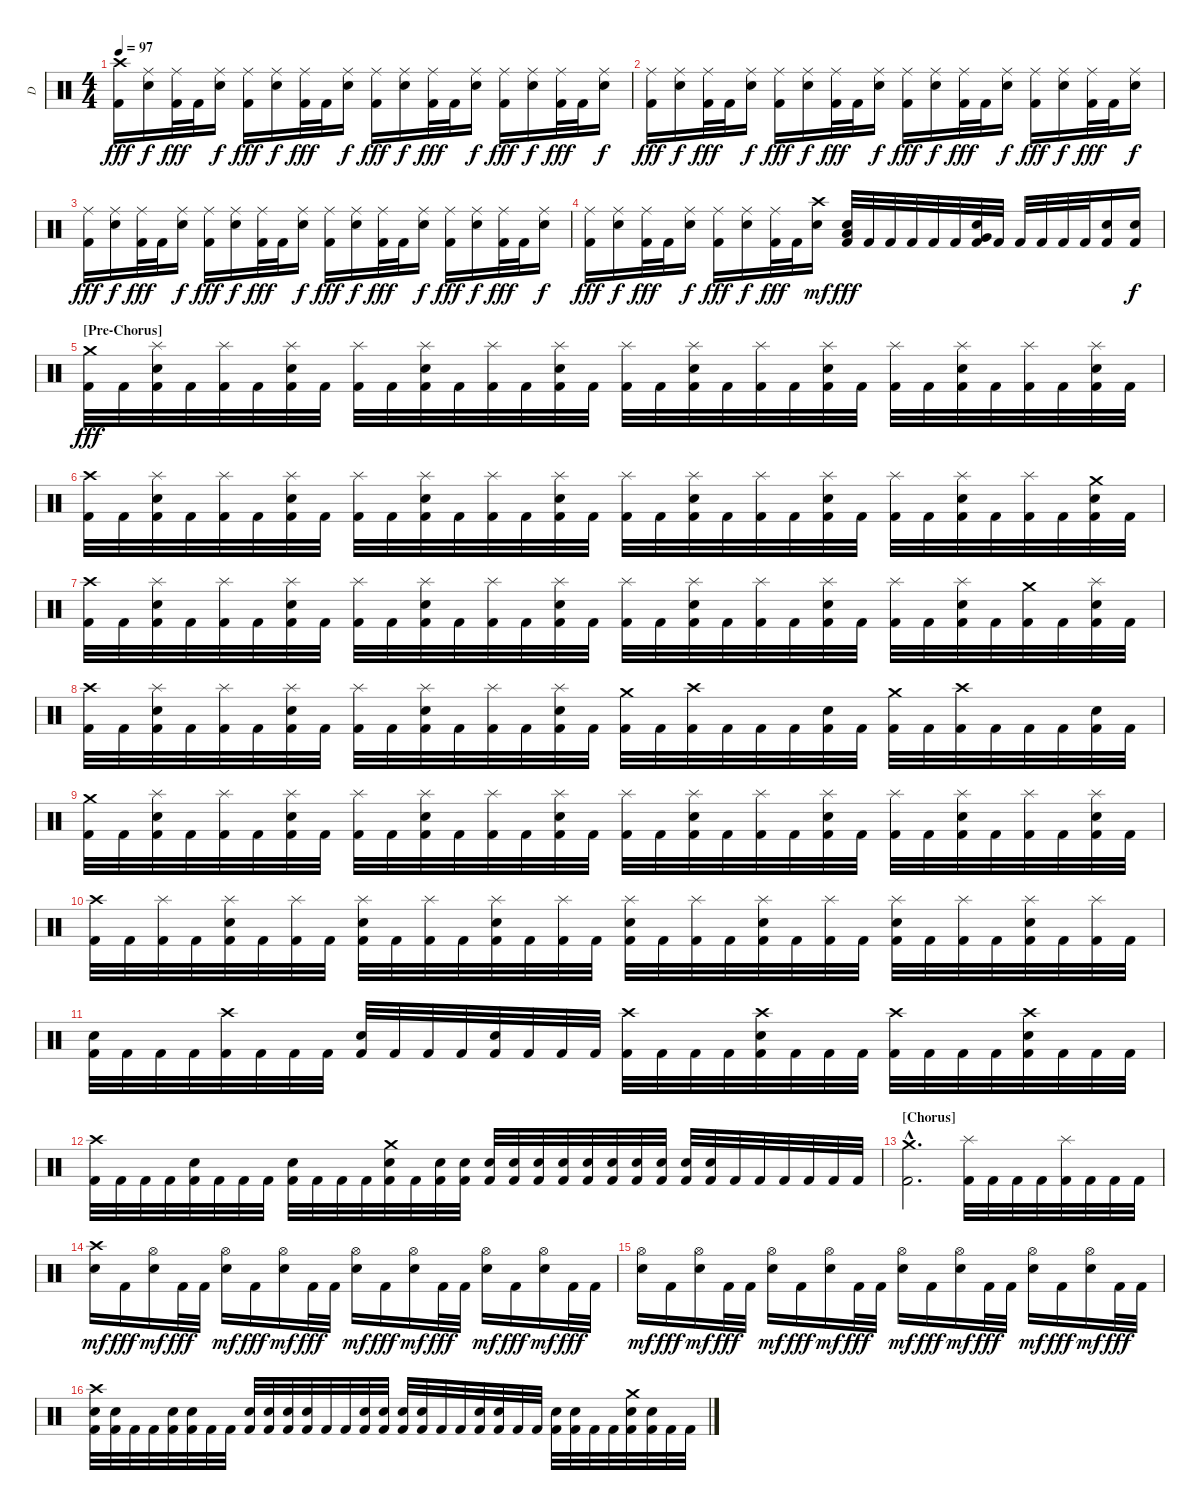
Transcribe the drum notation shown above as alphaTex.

\track ("D" "D") {instrument percussion}
\staff {score}
\articulation defaults
\ts (4 4)
\tempo 97
\clef neutral
\ks c
("Crash high (hit)" "Kick (hit) 2").16{dy fff} ("Ride (middle)" "Snare (hit) 2").16{dy f} ("Ride (middle)" "Kick (hit) 2").32{dy fff} "Kick (hit) 2".32 ("Ride (middle)" "Snare (hit) 2").16{dy f} ("Ride (middle)" "Kick (hit) 2").16{dy fff} ("Ride (middle)" "Snare (hit) 2").16{dy f} ("Ride (middle)" "Kick (hit) 2").32{dy fff} "Kick (hit) 2".32 ("Ride (middle)" "Snare (hit) 2").16{dy f} ("Ride (middle)" "Kick (hit) 2").16{dy fff} ("Ride (middle)" "Snare (hit) 2").16{dy f} ("Ride (middle)" "Kick (hit) 2").32{dy fff} "Kick (hit) 2".32 ("Ride (middle)" "Snare (hit) 2").16{dy f} ("Ride (middle)" "Kick (hit) 2").16{dy fff} ("Ride (middle)" "Snare (hit) 2").16{dy f} ("Ride (middle)" "Kick (hit) 2").32{dy fff} "Kick (hit) 2".32 ("Ride (middle)" "Snare (hit) 2").16{dy f} |
("Ride (middle)" "Kick (hit) 2").16{dy fff} ("Ride (middle)" "Snare (hit) 2").16{dy f} ("Ride (middle)" "Kick (hit) 2").32{dy fff} "Kick (hit) 2".32 ("Ride (middle)" "Snare (hit) 2").16{dy f} ("Ride (middle)" "Kick (hit) 2").16{dy fff} ("Ride (middle)" "Snare (hit) 2").16{dy f} ("Ride (middle)" "Kick (hit) 2").32{dy fff} "Kick (hit) 2".32 ("Ride (middle)" "Snare (hit) 2").16{dy f} ("Ride (middle)" "Kick (hit) 2").16{dy fff} ("Ride (middle)" "Snare (hit) 2").16{dy f} ("Ride (middle)" "Kick (hit) 2").32{dy fff} "Kick (hit) 2".32 ("Ride (middle)" "Snare (hit) 2").16{dy f} ("Ride (middle)" "Kick (hit) 2").16{dy fff} ("Ride (middle)" "Snare (hit) 2").16{dy f} ("Ride (middle)" "Kick (hit) 2").32{dy fff} "Kick (hit) 2".32 ("Ride (middle)" "Snare (hit) 2").16{dy f} |
("Ride (middle)" "Kick (hit) 2").16{dy fff} ("Ride (middle)" "Snare (hit) 2").16{dy f} ("Ride (middle)" "Kick (hit) 2").32{dy fff} "Kick (hit) 2".32 ("Ride (middle)" "Snare (hit) 2").16{dy f} ("Ride (middle)" "Kick (hit) 2").16{dy fff} ("Ride (middle)" "Snare (hit) 2").16{dy f} ("Ride (middle)" "Kick (hit) 2").32{dy fff} "Kick (hit) 2".32 ("Ride (middle)" "Snare (hit) 2").16{dy f} ("Ride (middle)" "Kick (hit) 2").16{dy fff} ("Ride (middle)" "Snare (hit) 2").16{dy f} ("Ride (middle)" "Kick (hit) 2").32{dy fff} "Kick (hit) 2".32 ("Ride (middle)" "Snare (hit) 2").16{dy f} ("Ride (middle)" "Kick (hit) 2").16{dy fff} ("Ride (middle)" "Snare (hit) 2").16{dy f} ("Ride (middle)" "Kick (hit) 2").32{dy fff} "Kick (hit) 2".32 ("Ride (middle)" "Snare (hit) 2").16{dy f} |
("Ride (middle)" "Kick (hit) 2").16{dy fff} ("Ride (middle)" "Snare (hit) 2").16{dy f} ("Ride (middle)" "Kick (hit) 2").32{dy fff} "Kick (hit) 2".32 ("Ride (middle)" "Snare (hit) 2").16{dy f} ("Ride (middle)" "Kick (hit) 2").16{dy fff} ("Ride (middle)" "Snare (hit) 2").16{dy f} ("Ride (middle)" "Kick (hit) 2").32{dy fff} "Kick (hit) 2".32 ("Crash high (hit)" "Snare (hit) 2").16{dy mf} ("Low Tom (hit)" "Snare (hit) 2" "Kick (hit) 2").32{dy fff} "Kick (hit) 2".32 "Kick (hit) 2".32 "Kick (hit) 2".32 "Kick (hit) 2".32 "Kick (hit) 2".32 ("Very Low Tom (hit)" "Snare (hit) 2" "Kick (hit) 2").32 "Kick (hit) 2".32 "Kick (hit) 2".32 "Kick (hit) 2".32 "Kick (hit) 2".32 "Kick (hit) 2".32 ("Snare (hit) 2" "Kick (hit) 2").16 ("Snare (hit) 2" "Kick (hit) 2").16{dy f} |
\section ("" "[Pre-Chorus]")
("Crash medium (hit)" "Kick (hit) 2").32{dy fff} "Kick (hit) 2".32 ("Splash (hit)" "Snare (hit) 2" "Kick (hit) 2").32 "Kick (hit) 2".32 ("Splash (hit)" "Kick (hit) 2").32 "Kick (hit) 2".32 ("Splash (hit)" "Snare (hit) 2" "Kick (hit) 2").32 "Kick (hit) 2".32 ("Splash (hit)" "Kick (hit) 2").32 "Kick (hit) 2".32 ("Splash (hit)" "Snare (hit) 2" "Kick (hit) 2").32 "Kick (hit) 2".32 ("Splash (hit)" "Kick (hit) 2").32 "Kick (hit) 2".32 ("Splash (hit)" "Snare (hit) 2" "Kick (hit) 2").32 "Kick (hit) 2".32 ("Splash (hit)" "Kick (hit) 2").32 "Kick (hit) 2".32 ("Splash (hit)" "Snare (hit) 2" "Kick (hit) 2").32 "Kick (hit) 2".32 ("Splash (hit)" "Kick (hit) 2").32 "Kick (hit) 2".32 ("Splash (hit)" "Snare (hit) 2" "Kick (hit) 2").32 "Kick (hit) 2".32 ("Splash (hit)" "Kick (hit) 2").32 "Kick (hit) 2".32 ("Splash (hit)" "Snare (hit) 2" "Kick (hit) 2").32 "Kick (hit) 2".32 ("Splash (hit)" "Kick (hit) 2").32 "Kick (hit) 2".32 ("Splash (hit)" "Snare (hit) 2" "Kick (hit) 2").32 "Kick (hit) 2".32 |
("Crash high (hit)" "Kick (hit) 2").32 "Kick (hit) 2".32 ("Splash (hit)" "Snare (hit) 2" "Kick (hit) 2").32 "Kick (hit) 2".32 ("Splash (hit)" "Kick (hit) 2").32 "Kick (hit) 2".32 ("Splash (hit)" "Snare (hit) 2" "Kick (hit) 2").32 "Kick (hit) 2".32 ("Splash (hit)" "Kick (hit) 2").32 "Kick (hit) 2".32 ("Splash (hit)" "Snare (hit) 2" "Kick (hit) 2").32 "Kick (hit) 2".32 ("Splash (hit)" "Kick (hit) 2").32 "Kick (hit) 2".32 ("Splash (hit)" "Snare (hit) 2" "Kick (hit) 2").32 "Kick (hit) 2".32 ("Splash (hit)" "Kick (hit) 2").32 "Kick (hit) 2".32 ("Splash (hit)" "Snare (hit) 2" "Kick (hit) 2").32 "Kick (hit) 2".32 ("Splash (hit)" "Kick (hit) 2").32 "Kick (hit) 2".32 ("Splash (hit)" "Snare (hit) 2" "Kick (hit) 2").32 "Kick (hit) 2".32 ("Splash (hit)" "Kick (hit) 2").32 "Kick (hit) 2".32 ("Splash (hit)" "Snare (hit) 2" "Kick (hit) 2").32 "Kick (hit) 2".32 ("Splash (hit)" "Kick (hit) 2").32 "Kick (hit) 2".32 ("Crash medium (hit)" "Snare (hit) 2" "Kick (hit) 2").32 "Kick (hit) 2".32 |
("Crash high (hit)" "Kick (hit) 2").32 "Kick (hit) 2".32 ("Splash (hit)" "Snare (hit) 2" "Kick (hit) 2").32 "Kick (hit) 2".32 ("Splash (hit)" "Kick (hit) 2").32 "Kick (hit) 2".32 ("Splash (hit)" "Snare (hit) 2" "Kick (hit) 2").32 "Kick (hit) 2".32 ("Splash (hit)" "Kick (hit) 2").32 "Kick (hit) 2".32 ("Splash (hit)" "Snare (hit) 2" "Kick (hit) 2").32 "Kick (hit) 2".32 ("Splash (hit)" "Kick (hit) 2").32 "Kick (hit) 2".32 ("Splash (hit)" "Snare (hit) 2" "Kick (hit) 2").32 "Kick (hit) 2".32 ("Splash (hit)" "Kick (hit) 2").32 "Kick (hit) 2".32 ("Splash (hit)" "Snare (hit) 2" "Kick (hit) 2").32 "Kick (hit) 2".32 ("Splash (hit)" "Kick (hit) 2").32 "Kick (hit) 2".32 ("Splash (hit)" "Snare (hit) 2" "Kick (hit) 2").32 "Kick (hit) 2".32 ("Splash (hit)" "Kick (hit) 2").32 "Kick (hit) 2".32 ("Splash (hit)" "Snare (hit) 2" "Kick (hit) 2").32 "Kick (hit) 2".32 ("Crash medium (hit)" "Kick (hit) 2").32 "Kick (hit) 2".32 ("Splash (hit)" "Snare (hit) 2" "Kick (hit) 2").32 "Kick (hit) 2".32 |
("Crash high (hit)" "Kick (hit) 2").32 "Kick (hit) 2".32 ("Splash (hit)" "Snare (hit) 2" "Kick (hit) 2").32 "Kick (hit) 2".32 ("Splash (hit)" "Kick (hit) 2").32 "Kick (hit) 2".32 ("Splash (hit)" "Snare (hit) 2" "Kick (hit) 2").32 "Kick (hit) 2".32 ("Splash (hit)" "Kick (hit) 2").32 "Kick (hit) 2".32 ("Splash (hit)" "Snare (hit) 2" "Kick (hit) 2").32 "Kick (hit) 2".32 ("Splash (hit)" "Kick (hit) 2").32 "Kick (hit) 2".32 ("Splash (hit)" "Snare (hit) 2" "Kick (hit) 2").32 "Kick (hit) 2".32 ("Crash medium (hit)" "Kick (hit) 2").32 "Kick (hit) 2".32 ("Crash high (hit)" "Kick (hit) 2").32 "Kick (hit) 2".32 "Kick (hit) 2".32 "Kick (hit) 2".32 ("Snare (hit) 2" "Kick (hit) 2").32 "Kick (hit) 2".32 ("Crash medium (hit)" "Kick (hit) 2").32 "Kick (hit) 2".32 ("Crash high (hit)" "Kick (hit) 2").32 "Kick (hit) 2".32 "Kick (hit) 2".32 "Kick (hit) 2".32 ("Snare (hit) 2" "Kick (hit) 2").32 "Kick (hit) 2".32 |
("Crash medium (hit)" "Kick (hit) 2").32 "Kick (hit) 2".32 ("Splash (hit)" "Snare (hit) 2" "Kick (hit) 2").32 "Kick (hit) 2".32 ("Splash (hit)" "Kick (hit) 2").32 "Kick (hit) 2".32 ("Splash (hit)" "Snare (hit) 2" "Kick (hit) 2").32 "Kick (hit) 2".32 ("Splash (hit)" "Kick (hit) 2").32 "Kick (hit) 2".32 ("Splash (hit)" "Snare (hit) 2" "Kick (hit) 2").32 "Kick (hit) 2".32 ("Splash (hit)" "Kick (hit) 2").32 "Kick (hit) 2".32 ("Splash (hit)" "Snare (hit) 2" "Kick (hit) 2").32 "Kick (hit) 2".32 ("Splash (hit)" "Kick (hit) 2").32 "Kick (hit) 2".32 ("Splash (hit)" "Snare (hit) 2" "Kick (hit) 2").32 "Kick (hit) 2".32 ("Splash (hit)" "Kick (hit) 2").32 "Kick (hit) 2".32 ("Splash (hit)" "Snare (hit) 2" "Kick (hit) 2").32 "Kick (hit) 2".32 ("Splash (hit)" "Kick (hit) 2").32 "Kick (hit) 2".32 ("Splash (hit)" "Snare (hit) 2" "Kick (hit) 2").32 "Kick (hit) 2".32 ("Splash (hit)" "Kick (hit) 2").32 "Kick (hit) 2".32 ("Splash (hit)" "Snare (hit) 2" "Kick (hit) 2").32 "Kick (hit) 2".32 |
("Crash high (hit)" "Kick (hit) 2").32 "Kick (hit) 2".32 ("Splash (hit)" "Kick (hit) 2").32 "Kick (hit) 2".32 ("Splash (hit)" "Snare (hit) 2" "Kick (hit) 2").32 "Kick (hit) 2".32 ("Splash (hit)" "Kick (hit) 2").32 "Kick (hit) 2".32 ("Splash (hit)" "Snare (hit) 2" "Kick (hit) 2").32 "Kick (hit) 2".32 ("Splash (hit)" "Kick (hit) 2").32 "Kick (hit) 2".32 ("Splash (hit)" "Snare (hit) 2" "Kick (hit) 2").32 "Kick (hit) 2".32 ("Splash (hit)" "Kick (hit) 2").32 "Kick (hit) 2".32 ("Splash (hit)" "Snare (hit) 2" "Kick (hit) 2").32 "Kick (hit) 2".32 ("Splash (hit)" "Kick (hit) 2").32 "Kick (hit) 2".32 ("Splash (hit)" "Snare (hit) 2" "Kick (hit) 2").32 "Kick (hit) 2".32 ("Splash (hit)" "Kick (hit) 2").32 "Kick (hit) 2".32 ("Splash (hit)" "Snare (hit) 2" "Kick (hit) 2").32 "Kick (hit) 2".32 ("Splash (hit)" "Kick (hit) 2").32 "Kick (hit) 2".32 ("Splash (hit)" "Snare (hit) 2" "Kick (hit) 2").32 "Kick (hit) 2".32 ("Splash (hit)" "Kick (hit) 2").32 "Kick (hit) 2".32 |
("Snare (hit) 2" "Kick (hit) 2").32 "Kick (hit) 2".32 "Kick (hit) 2".32 "Kick (hit) 2".32 ("Crash high (hit)" "Kick (hit) 2").32 "Kick (hit) 2".32 "Kick (hit) 2".32 "Kick (hit) 2".32 ("Snare (hit) 2" "Kick (hit) 2").32 "Kick (hit) 2".32 "Kick (hit) 2".32 "Kick (hit) 2".32 ("Snare (hit) 2" "Kick (hit) 2").32 "Kick (hit) 2".32 "Kick (hit) 2".32 "Kick (hit) 2".32 ("Crash high (hit)" "Kick (hit) 2").32 "Kick (hit) 2".32 "Kick (hit) 2".32 "Kick (hit) 2".32 ("Crash high (hit)" "Snare (hit) 2" "Kick (hit) 2").32 "Kick (hit) 2".32 "Kick (hit) 2".32 "Kick (hit) 2".32 ("Crash high (hit)" "Kick (hit) 2").32 "Kick (hit) 2".32 "Kick (hit) 2".32 "Kick (hit) 2".32 ("Crash high (hit)" "Snare (hit) 2" "Kick (hit) 2").32 "Kick (hit) 2".32 "Kick (hit) 2".32 "Kick (hit) 2".32 |
("Crash high (hit)" "Kick (hit) 2").32 "Kick (hit) 2".32 "Kick (hit) 2".32 "Kick (hit) 2".32 ("Snare (hit) 2" "Kick (hit) 2").32 "Kick (hit) 2".32 "Kick (hit) 2".32 "Kick (hit) 2".32 ("Snare (hit) 2" "Kick (hit) 2").32 "Kick (hit) 2".32 "Kick (hit) 2".32 "Kick (hit) 2".32 ("Crash medium (hit)" "Snare (hit) 2" "Kick (hit) 2").32 "Kick (hit) 2".32 ("Snare (hit) 2" "Kick (hit) 2").32 ("Snare (hit) 2" "Kick (hit) 2").32 ("Snare (hit) 2" "Kick (hit) 2").32 ("Snare (hit) 2" "Kick (hit) 2").32 ("Snare (hit) 2" "Kick (hit) 2").32 ("Snare (hit) 2" "Kick (hit) 2").32 ("Snare (hit) 2" "Kick (hit) 2").32 ("Snare (hit) 2" "Kick (hit) 2").32 ("Snare (hit) 2" "Kick (hit) 2").32 ("Snare (hit) 2" "Kick (hit) 2").32 ("Snare (hit) 2" "Kick (hit) 2").32 ("Snare (hit) 2" "Kick (hit) 2").32 "Kick (hit) 2".32 "Kick (hit) 2".32 "Kick (hit) 2".32 "Kick (hit) 2".32 "Kick (hit) 2".32 "Kick (hit) 2".32 |
\section ("" "[Chorus]")
("Crash medium (hit)"{hac} "Kick (hit) 2"{hac}).2{d} ("Splash (hit)" "Kick (hit) 2").32 "Kick (hit) 2".32 "Kick (hit) 2".32 "Kick (hit) 2".32 ("Splash (hit)" "Kick (hit) 2").32 "Kick (hit) 2".32 "Kick (hit) 2".32 "Kick (hit) 2".32 |
("Crash high (hit)" "Snare (hit) 2").16{dy mf} "Kick (hit) 2".16{dy fff} ("Hi-Hat (open)" "Snare (hit) 2").16{dy mf} "Kick (hit) 2".32{dy fff} "Kick (hit) 2".32 ("Hi-Hat (open)" "Snare (hit) 2").16{dy mf} "Kick (hit) 2".16{dy fff} ("Hi-Hat (open)" "Snare (hit) 2").16{dy mf} "Kick (hit) 2".32{dy fff} "Kick (hit) 2".32 ("Hi-Hat (open)" "Snare (hit) 2").16{dy mf} "Kick (hit) 2".16{dy fff} ("Hi-Hat (open)" "Snare (hit) 2").16{dy mf} "Kick (hit) 2".32{dy fff} "Kick (hit) 2".32 ("Hi-Hat (open)" "Snare (hit) 2").16{dy mf} "Kick (hit) 2".16{dy fff} ("Hi-Hat (open)" "Snare (hit) 2").16{dy mf} "Kick (hit) 2".32{dy fff} "Kick (hit) 2".32 |
("Hi-Hat (open)" "Snare (hit) 2").16{dy mf} "Kick (hit) 2".16{dy fff} ("Hi-Hat (open)" "Snare (hit) 2").16{dy mf} "Kick (hit) 2".32{dy fff} "Kick (hit) 2".32 ("Hi-Hat (open)" "Snare (hit) 2").16{dy mf} "Kick (hit) 2".16{dy fff} ("Hi-Hat (open)" "Snare (hit) 2").16{dy mf} "Kick (hit) 2".32{dy fff} "Kick (hit) 2".32 ("Hi-Hat (open)" "Snare (hit) 2").16{dy mf} "Kick (hit) 2".16{dy fff} ("Hi-Hat (open)" "Snare (hit) 2").16{dy mf} "Kick (hit) 2".32{dy fff} "Kick (hit) 2".32 ("Hi-Hat (open)" "Snare (hit) 2").16{dy mf} "Kick (hit) 2".16{dy fff} ("Hi-Hat (open)" "Snare (hit) 2").16{dy mf} "Kick (hit) 2".32{dy fff} "Kick (hit) 2".32 |
("Crash high (hit)" "Snare (hit) 2" "Kick (hit) 2").32 ("Snare (hit) 2" "Kick (hit) 2").32 "Kick (hit) 2".32 "Kick (hit) 2".32 ("Snare (hit) 2" "Kick (hit) 2").32 ("Snare (hit) 2" "Kick (hit) 2").32 "Kick (hit) 2".32 "Kick (hit) 2".32 ("Snare (hit) 2" "Kick (hit) 2").32 ("Snare (hit) 2" "Kick (hit) 2").32 ("Snare (hit) 2" "Kick (hit) 2").32 ("Snare (hit) 2" "Kick (hit) 2").32 "Kick (hit) 2".32 "Kick (hit) 2".32 ("Snare (hit) 2" "Kick (hit) 2").32 ("Snare (hit) 2" "Kick (hit) 2").32 ("Snare (hit) 2" "Kick (hit) 2").32 ("Snare (hit) 2" "Kick (hit) 2").32 "Kick (hit) 2".32 "Kick (hit) 2".32 ("Snare (hit) 2" "Kick (hit) 2").32 ("Snare (hit) 2" "Kick (hit) 2").32 "Kick (hit) 2".32 "Kick (hit) 2".32 ("Snare (hit) 2" "Kick (hit) 2").32 ("Snare (hit) 2" "Kick (hit) 2").32 "Kick (hit) 2".32 "Kick (hit) 2".32 ("Crash medium (hit)" "Snare (hit) 2" "Kick (hit) 2").32 ("Snare (hit) 2" "Kick (hit) 2").32 "Kick (hit) 2".32 "Kick (hit) 2".32
